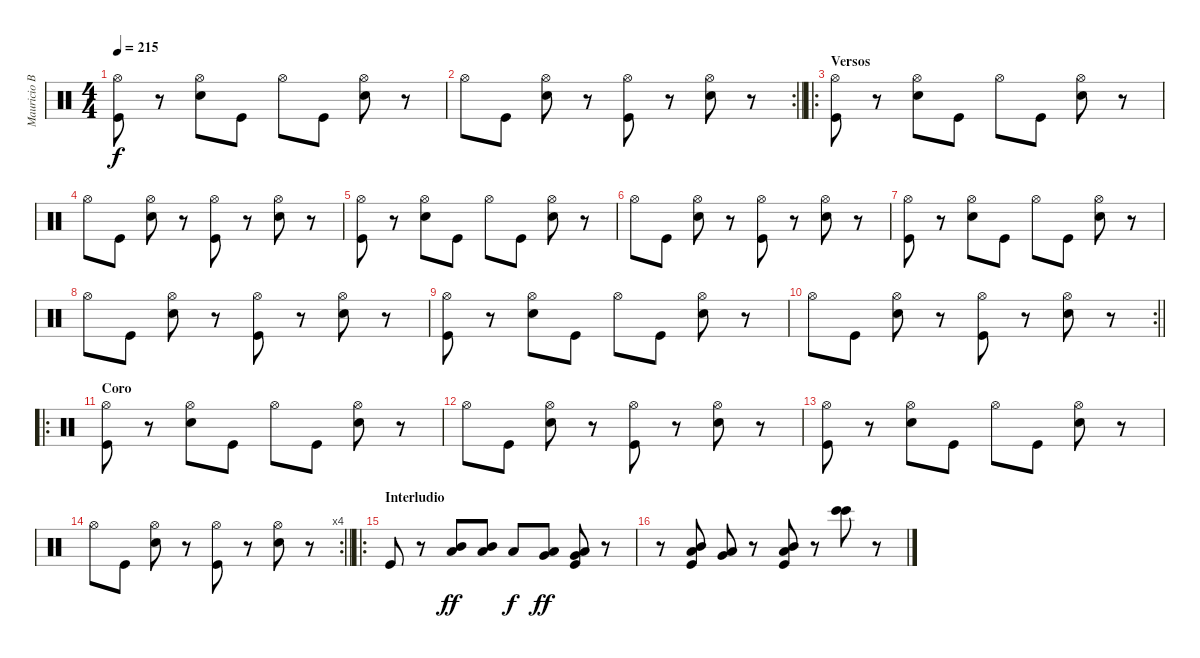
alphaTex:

\track ("Mauricio Basualto" "Mauricio B") {instrument percussion}
\staff {score}
\articulation defaults
\ts (4 4)
\tempo 215
\clef neutral
\ks c
("Hi-Hat (open)" "Kick (hit)").8{dy f} r.8 ("Hi-Hat (open)" "Electric Snare (hit)").8 "Kick (hit)".8 "Hi-Hat (open)".8 "Kick (hit)".8 ("Hi-Hat (open)" "Electric Snare (hit)").8 r.8 |
\rc 2
\barLineRight lightlight "Hi-Hat (open)".8 "Kick (hit)".8
("Hi-Hat (open)" "Electric Snare (hit)").8 r.8 ("Hi-Hat (open)" "Kick (hit)").8 r.8 ("Hi-Hat (open)" "Electric Snare (hit)").8 r.8 |
\ro
\section ("" "Versos")
("Hi-Hat (open)" "Kick (hit)").8 r.8 ("Hi-Hat (open)" "Electric Snare (hit)").8 "Kick (hit)".8 "Hi-Hat (open)".8 "Kick (hit)".8 ("Hi-Hat (open)" "Electric Snare (hit)").8 r.8 |
"Hi-Hat (open)".8 "Kick (hit)".8 ("Hi-Hat (open)" "Electric Snare (hit)").8 r.8 ("Hi-Hat (open)" "Kick (hit)").8 r.8 ("Hi-Hat (open)" "Electric Snare (hit)").8 r.8 |
("Hi-Hat (open)" "Kick (hit)").8 r.8 ("Hi-Hat (open)" "Electric Snare (hit)").8 "Kick (hit)".8 "Hi-Hat (open)".8 "Kick (hit)".8 ("Hi-Hat (open)" "Electric Snare (hit)").8 r.8 |
"Hi-Hat (open)".8 "Kick (hit)".8 ("Hi-Hat (open)" "Electric Snare (hit)").8 r.8 ("Hi-Hat (open)" "Kick (hit)").8 r.8 ("Hi-Hat (open)" "Electric Snare (hit)").8 r.8 |
("Hi-Hat (open)" "Kick (hit)").8 r.8 ("Hi-Hat (open)" "Electric Snare (hit)").8 "Kick (hit)".8 "Hi-Hat (open)".8 "Kick (hit)".8 ("Hi-Hat (open)" "Electric Snare (hit)").8 r.8 |
"Hi-Hat (open)".8 "Kick (hit)".8 ("Hi-Hat (open)" "Electric Snare (hit)").8 r.8 ("Hi-Hat (open)" "Kick (hit)").8 r.8 ("Hi-Hat (open)" "Electric Snare (hit)").8 r.8 |
("Hi-Hat (open)" "Kick (hit)").8 r.8 ("Hi-Hat (open)" "Electric Snare (hit)").8 "Kick (hit)".8 "Hi-Hat (open)".8 "Kick (hit)".8 ("Hi-Hat (open)" "Electric Snare (hit)").8 r.8 |
\rc 2
\barLineRight lightlight "Hi-Hat (open)".8 "Kick (hit)".8
("Hi-Hat (open)" "Electric Snare (hit)").8 r.8 ("Hi-Hat (open)" "Kick (hit)").8 r.8 ("Hi-Hat (open)" "Electric Snare (hit)").8 r.8 |
\ro
\section ("" "Coro")
("Hi-Hat (open)" "Kick (hit)").8 r.8 ("Hi-Hat (open)" "Electric Snare (hit)").8 "Kick (hit)".8 "Hi-Hat (open)".8 "Kick (hit)".8 ("Hi-Hat (open)" "Electric Snare (hit)").8 r.8 |
"Hi-Hat (open)".8 "Kick (hit)".8 ("Hi-Hat (open)" "Electric Snare (hit)").8 r.8 ("Hi-Hat (open)" "Kick (hit)").8 r.8 ("Hi-Hat (open)" "Electric Snare (hit)").8 r.8 |
("Hi-Hat (open)" "Kick (hit)").8 r.8 ("Hi-Hat (open)" "Electric Snare (hit)").8 "Kick (hit)".8 "Hi-Hat (open)".8 "Kick (hit)".8 ("Hi-Hat (open)" "Electric Snare (hit)").8 r.8 |
\rc 4
\barLineRight lightlight "Hi-Hat (open)".8 "Kick (hit)".8
("Hi-Hat (open)" "Electric Snare (hit)").8 r.8 ("Hi-Hat (open)" "Kick (hit)").8 r.8 ("Hi-Hat (open)" "Electric Snare (hit)").8 r.8 |
\ro
\section ("" "Interludio")
"Kick (hit)".8 r.8 ("Mid Tom (hit)" "Low Tom (hit)").8{dy ff} ("Mid Tom (hit)" "Low Tom (hit)").8 "Low Tom (hit)".8{dy f} ("Low Tom (hit)" "Very Low Tom (hit)").8{dy ff} ("Low Tom (hit)" "Very Low Tom (hit)" "Kick (hit)").8 r.8 |
r.8 ("Mid Tom (hit)" "Low Tom (hit)" "Kick (hit)").8 ("Low Tom (hit)" "Very Low Tom (hit)").8 r.8 ("Mid Tom (hit)" "Low Tom (hit)" "Kick (hit)").8 r.8 ("Bongo High (hit)" "Bongo High (hit)").8 r.8
